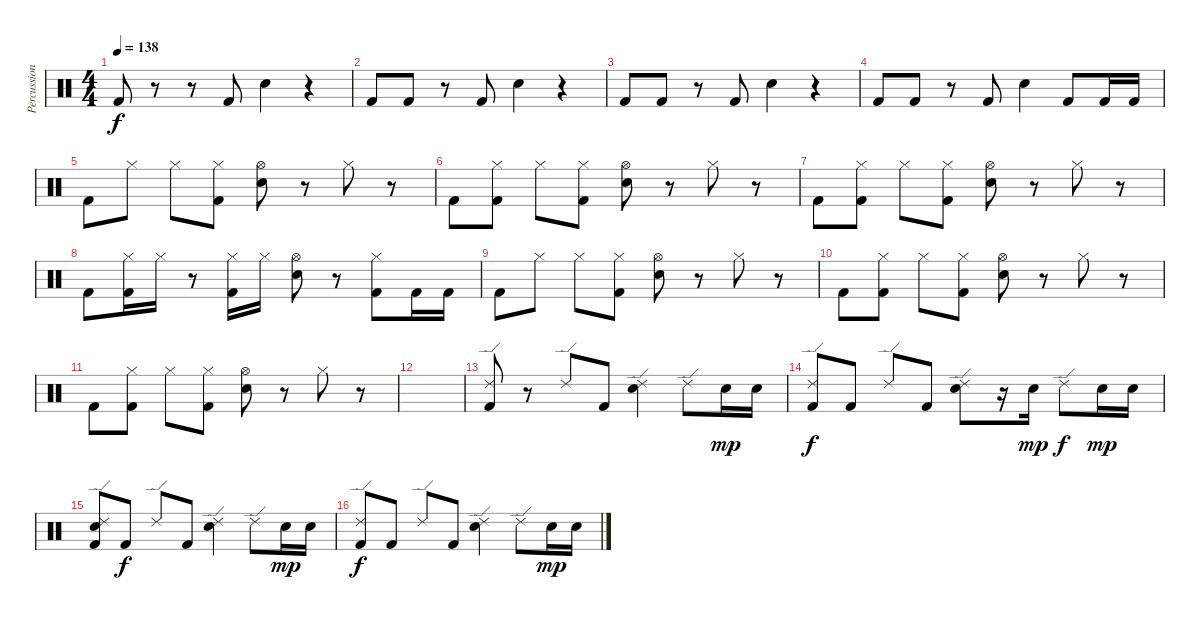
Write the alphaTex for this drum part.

\track ("Percussion" "Percussion") {instrument percussion}
\staff {score}
\articulation defaults
\ts (4 4)
\tempo 138
\clef neutral
\ks c "Kick (hit) 2".8{dy f}
r.8 r.8 "Kick (hit) 2".8 "Electric Snare (hit)".4 r.4 |
"Kick (hit) 2".8 "Kick (hit) 2".8 r.8 "Kick (hit) 2".8 "Electric Snare (hit)".4 r.4 |
"Kick (hit) 2".8 "Kick (hit) 2".8 r.8 "Kick (hit) 2".8 "Electric Snare (hit)".4 r.4 |
"Kick (hit) 2".8 "Kick (hit) 2".8 r.8 "Kick (hit) 2".8 "Electric Snare (hit)".4 "Kick (hit) 2".8 "Kick (hit) 2".16 "Kick (hit) 2".16 |
"Kick (hit) 2".8 "Hi-Hat (closed)".8 "Hi-Hat (closed)".8 ("Hi-Hat (closed)" "Kick (hit) 2").8 ("Hi-Hat (open)" "Electric Snare (hit)").8 r.8 "Hi-Hat (closed)".8 r.8 |
"Kick (hit) 2".8 ("Hi-Hat (closed)" "Kick (hit) 2").8 "Hi-Hat (closed)".8 ("Hi-Hat (closed)" "Kick (hit) 2").8 ("Hi-Hat (open)" "Electric Snare (hit)").8 r.8 "Hi-Hat (closed)".8 r.8 |
"Kick (hit) 2".8 ("Hi-Hat (closed)" "Kick (hit) 2").8 "Hi-Hat (closed)".8 ("Hi-Hat (closed)" "Kick (hit) 2").8 ("Hi-Hat (open)" "Electric Snare (hit)").8 r.8 "Hi-Hat (closed)".8 r.8 |
"Kick (hit) 2".8 ("Hi-Hat (closed)" "Kick (hit) 2").16 "Hi-Hat (closed)".16 r.8 ("Hi-Hat (closed)" "Kick (hit) 2").16 "Hi-Hat (closed)".16 ("Hi-Hat (open)" "Electric Snare (hit)").8 r.8 ("Hi-Hat (closed)" "Kick (hit) 2").8 "Kick (hit) 2".16 "Kick (hit) 2".16 |
"Kick (hit) 2".8 "Hi-Hat (closed)".8 "Hi-Hat (closed)".8 ("Hi-Hat (closed)" "Kick (hit) 2").8 ("Hi-Hat (open)" "Electric Snare (hit)").8 r.8 "Hi-Hat (closed)".8 r.8 |
"Kick (hit) 2".8 ("Hi-Hat (closed)" "Kick (hit) 2").8 "Hi-Hat (closed)".8 ("Hi-Hat (closed)" "Kick (hit) 2").8 ("Hi-Hat (open)" "Electric Snare (hit)").8 r.8 "Hi-Hat (closed)".8 r.8 |
"Kick (hit) 2".8 ("Hi-Hat (closed)" "Kick (hit) 2").8 "Hi-Hat (closed)".8 ("Hi-Hat (closed)" "Kick (hit) 2").8 ("Hi-Hat (open)" "Electric Snare (hit)").8 r.8 "Hi-Hat (closed)".8 r.8 |
|
("Ride (edge) 2" "Kick (hit) 2").8 r.8 "Ride (edge) 2".8 "Kick (hit) 2".8 ("Ride (edge) 2" "Electric Snare (hit)").4 "Ride (edge) 2".8 "Electric Snare (hit)".16{dy mp} "Electric Snare (hit)".16 |
("Ride (edge) 2" "Kick (hit) 2").8{dy f} "Kick (hit) 2".8 "Ride (edge) 2".8 "Kick (hit) 2".8 ("Ride (edge) 2" "Electric Snare (hit)").8 r.16 "Electric Snare (hit)".16{dy mp} "Ride (edge) 2".8{dy f} "Electric Snare (hit)".16{dy mp} "Electric Snare (hit)".16 |
("Ride (edge) 2" "Electric Snare (hit)" "Kick (hit) 2").8 "Kick (hit) 2".8{dy f} "Ride (edge) 2".8 "Kick (hit) 2".8 ("Ride (edge) 2" "Electric Snare (hit)").4 "Ride (edge) 2".8 "Electric Snare (hit)".16{dy mp} "Electric Snare (hit)".16 |
("Ride (edge) 2" "Kick (hit) 2").8{dy f} "Kick (hit) 2".8 "Ride (edge) 2".8 "Kick (hit) 2".8 ("Ride (edge) 2" "Electric Snare (hit)").4 "Ride (edge) 2".8 "Electric Snare (hit)".16{dy mp} "Electric Snare (hit)".16
